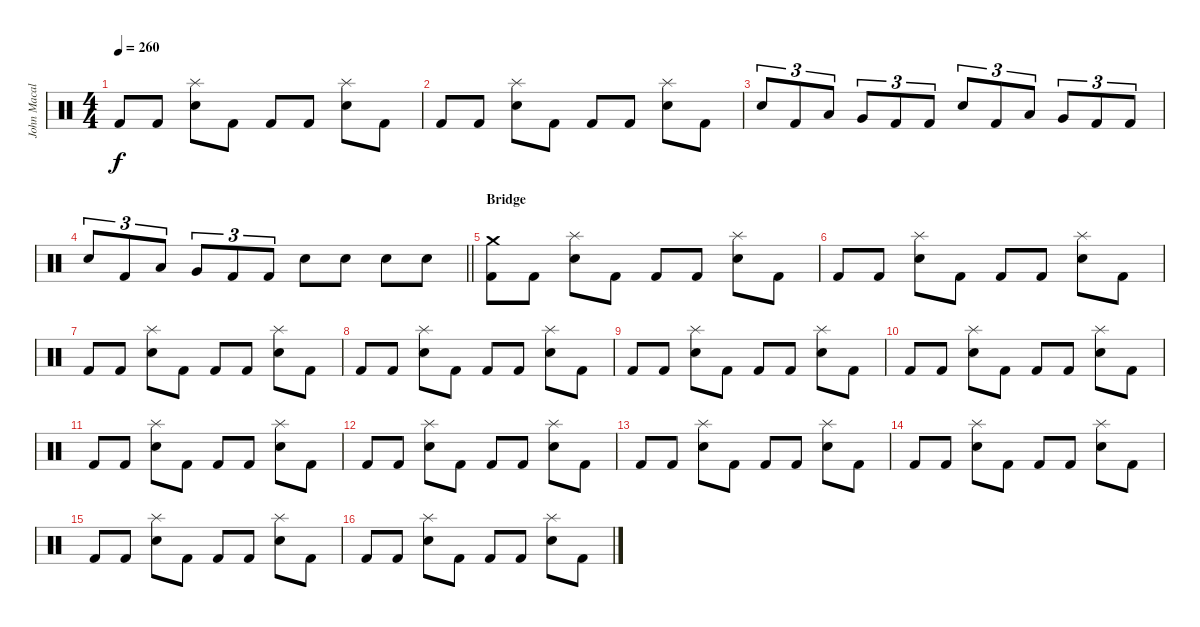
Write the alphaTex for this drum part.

\track ("John Macaluso" "John Macal") {instrument percussion}
\staff {score}
\articulation defaults
\ts (4 4)
\tempo 260
\clef neutral
\ks c "Kick (hit) 2".8{dy f} "Kick (hit) 2".8
("Splash (hit)" "Snare (hit) 2").8 "Kick (hit) 2".8 "Kick (hit) 2".8 "Kick (hit) 2".8 ("Splash (hit)" "Snare (hit) 2").8 "Kick (hit) 2".8 |
"Kick (hit) 2".8 "Kick (hit) 2".8 ("Splash (hit)" "Snare (hit) 2").8 "Kick (hit) 2".8 "Kick (hit) 2".8 "Kick (hit) 2".8 ("Splash (hit)" "Snare (hit) 2").8 "Kick (hit) 2".8 |
"Snare (hit) 2".8{tu (3 2)} "Kick (hit) 2".8{tu (3 2)} "Low Tom (hit)".8{tu (3 2)} "Very Low Tom (hit)".8{tu (3 2)} "Kick (hit) 2".8{tu (3 2)} "Kick (hit) 2".8{tu (3 2)} "Snare (hit) 2".8{tu (3 2)} "Kick (hit) 2".8{tu (3 2)} "Low Tom (hit)".8{tu (3 2)} "Very Low Tom (hit)".8{tu (3 2)} "Kick (hit) 2".8{tu (3 2)} "Kick (hit) 2".8{tu (3 2)} |
\barLineRight lightlight "Snare (hit) 2".8{tu (3 2)} "Kick (hit) 2".8{tu (3 2)} "Low Tom (hit)".8{tu (3 2)} "Very Low Tom (hit)".8{tu (3 2)} "Kick (hit) 2".8{tu (3 2)} "Kick (hit) 2".8{tu (3 2)} "Snare (hit) 2".8 "Snare (hit) 2".8 "Snare (hit) 2".8 "Snare (hit) 2".8
|
\section ("" "Bridge")
("Crash medium (hit)" "Kick (hit) 2").8 "Kick (hit) 2".8 ("Splash (hit)" "Snare (hit) 2").8 "Kick (hit) 2".8 "Kick (hit) 2".8 "Kick (hit) 2".8 ("Splash (hit)" "Snare (hit) 2").8 "Kick (hit) 2".8 |
"Kick (hit) 2".8 "Kick (hit) 2".8 ("Splash (hit)" "Snare (hit) 2").8 "Kick (hit) 2".8 "Kick (hit) 2".8 "Kick (hit) 2".8 ("Splash (hit)" "Snare (hit) 2").8 "Kick (hit) 2".8 |
"Kick (hit) 2".8 "Kick (hit) 2".8 ("Splash (hit)" "Snare (hit) 2").8 "Kick (hit) 2".8 "Kick (hit) 2".8 "Kick (hit) 2".8 ("Splash (hit)" "Snare (hit) 2").8 "Kick (hit) 2".8 |
"Kick (hit) 2".8 "Kick (hit) 2".8 ("Splash (hit)" "Snare (hit) 2").8 "Kick (hit) 2".8 "Kick (hit) 2".8 "Kick (hit) 2".8 ("Splash (hit)" "Snare (hit) 2").8 "Kick (hit) 2".8 |
"Kick (hit) 2".8 "Kick (hit) 2".8 ("Splash (hit)" "Snare (hit) 2").8 "Kick (hit) 2".8 "Kick (hit) 2".8 "Kick (hit) 2".8 ("Splash (hit)" "Snare (hit) 2").8 "Kick (hit) 2".8 |
"Kick (hit) 2".8 "Kick (hit) 2".8 ("Splash (hit)" "Snare (hit) 2").8 "Kick (hit) 2".8 "Kick (hit) 2".8 "Kick (hit) 2".8 ("Splash (hit)" "Snare (hit) 2").8 "Kick (hit) 2".8 |
"Kick (hit) 2".8 "Kick (hit) 2".8 ("Splash (hit)" "Snare (hit) 2").8 "Kick (hit) 2".8 "Kick (hit) 2".8 "Kick (hit) 2".8 ("Splash (hit)" "Snare (hit) 2").8 "Kick (hit) 2".8 |
"Kick (hit) 2".8 "Kick (hit) 2".8 ("Splash (hit)" "Snare (hit) 2").8 "Kick (hit) 2".8 "Kick (hit) 2".8 "Kick (hit) 2".8 ("Splash (hit)" "Snare (hit) 2").8 "Kick (hit) 2".8 |
"Kick (hit) 2".8 "Kick (hit) 2".8 ("Splash (hit)" "Snare (hit) 2").8 "Kick (hit) 2".8 "Kick (hit) 2".8 "Kick (hit) 2".8 ("Splash (hit)" "Snare (hit) 2").8 "Kick (hit) 2".8 |
"Kick (hit) 2".8 "Kick (hit) 2".8 ("Splash (hit)" "Snare (hit) 2").8 "Kick (hit) 2".8 "Kick (hit) 2".8 "Kick (hit) 2".8 ("Splash (hit)" "Snare (hit) 2").8 "Kick (hit) 2".8 |
"Kick (hit) 2".8 "Kick (hit) 2".8 ("Splash (hit)" "Snare (hit) 2").8 "Kick (hit) 2".8 "Kick (hit) 2".8 "Kick (hit) 2".8 ("Splash (hit)" "Snare (hit) 2").8 "Kick (hit) 2".8 |
"Kick (hit) 2".8 "Kick (hit) 2".8 ("Splash (hit)" "Snare (hit) 2").8 "Kick (hit) 2".8 "Kick (hit) 2".8 "Kick (hit) 2".8 ("Splash (hit)" "Snare (hit) 2").8 "Kick (hit) 2".8
